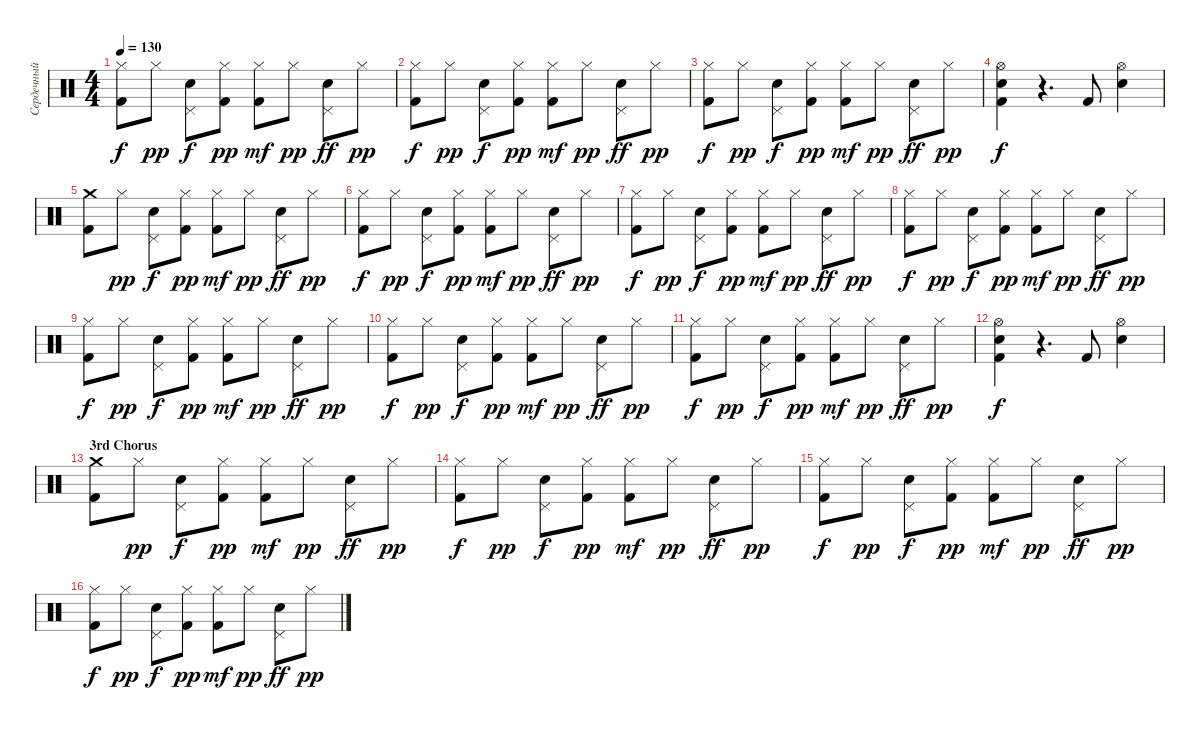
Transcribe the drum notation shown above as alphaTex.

\track ("Сердечный (Ударные)" "Сердечный ") {instrument percussion}
\staff {score}
\articulation defaults
\ts (4 4)
\tempo 130
\clef neutral
\ks c
("Hi-Hat (closed)" "Kick (hit) 2").8{dy f} "Hi-Hat (closed)".8{dy pp} ("Pedal Hi-Hat (hit)" "Electric Snare (hit)").8{dy f} ("Hi-Hat (closed)" "Kick (hit) 2").8{dy pp} ("Hi-Hat (closed)" "Kick (hit) 2").8{dy mf} "Hi-Hat (closed)".8{dy pp} ("Pedal Hi-Hat (hit)" "Electric Snare (hit)").8{dy ff} "Hi-Hat (closed)".8{dy pp} |
("Hi-Hat (closed)" "Kick (hit) 2").8{dy f} "Hi-Hat (closed)".8{dy pp} ("Pedal Hi-Hat (hit)" "Electric Snare (hit)").8{dy f} ("Hi-Hat (closed)" "Kick (hit) 2").8{dy pp} ("Hi-Hat (closed)" "Kick (hit) 2").8{dy mf} "Hi-Hat (closed)".8{dy pp} ("Pedal Hi-Hat (hit)" "Electric Snare (hit)").8{dy ff} "Hi-Hat (closed)".8{dy pp} |
("Hi-Hat (closed)" "Kick (hit) 2").8{dy f} "Hi-Hat (closed)".8{dy pp} ("Pedal Hi-Hat (hit)" "Electric Snare (hit)").8{dy f} ("Hi-Hat (closed)" "Kick (hit) 2").8{dy pp} ("Hi-Hat (closed)" "Kick (hit) 2").8{dy mf} "Hi-Hat (closed)".8{dy pp} ("Pedal Hi-Hat (hit)" "Electric Snare (hit)").8{dy ff} "Hi-Hat (closed)".8{dy pp} |
("Kick (hit) 2" "Electric Snare (hit)" "Hi-Hat (open)").4{dy f} r.4{d} "Kick (hit) 2".8 ("Hi-Hat (open)" "Electric Snare (hit)").4 |
("Kick (hit) 2" "Crash medium (hit)").8 "Hi-Hat (closed)".8{dy pp} ("Pedal Hi-Hat (hit)" "Electric Snare (hit)").8{dy f} ("Hi-Hat (closed)" "Kick (hit) 2").8{dy pp} ("Hi-Hat (closed)" "Kick (hit) 2").8{dy mf} "Hi-Hat (closed)".8{dy pp} ("Pedal Hi-Hat (hit)" "Electric Snare (hit)").8{dy ff} "Hi-Hat (closed)".8{dy pp} |
("Hi-Hat (closed)" "Kick (hit) 2").8{dy f} "Hi-Hat (closed)".8{dy pp} ("Pedal Hi-Hat (hit)" "Electric Snare (hit)").8{dy f} ("Hi-Hat (closed)" "Kick (hit) 2").8{dy pp} ("Hi-Hat (closed)" "Kick (hit) 2").8{dy mf} "Hi-Hat (closed)".8{dy pp} ("Pedal Hi-Hat (hit)" "Electric Snare (hit)").8{dy ff} "Hi-Hat (closed)".8{dy pp} |
("Hi-Hat (closed)" "Kick (hit) 2").8{dy f} "Hi-Hat (closed)".8{dy pp} ("Pedal Hi-Hat (hit)" "Electric Snare (hit)").8{dy f} ("Hi-Hat (closed)" "Kick (hit) 2").8{dy pp} ("Hi-Hat (closed)" "Kick (hit) 2").8{dy mf} "Hi-Hat (closed)".8{dy pp} ("Pedal Hi-Hat (hit)" "Electric Snare (hit)").8{dy ff} "Hi-Hat (closed)".8{dy pp} |
("Hi-Hat (closed)" "Kick (hit) 2").8{dy f} "Hi-Hat (closed)".8{dy pp} ("Pedal Hi-Hat (hit)" "Electric Snare (hit)").8{dy f} ("Hi-Hat (closed)" "Kick (hit) 2").8{dy pp} ("Hi-Hat (closed)" "Kick (hit) 2").8{dy mf} "Hi-Hat (closed)".8{dy pp} ("Pedal Hi-Hat (hit)" "Electric Snare (hit)").8{dy ff} "Hi-Hat (closed)".8{dy pp} |
("Hi-Hat (closed)" "Kick (hit) 2").8{dy f} "Hi-Hat (closed)".8{dy pp} ("Pedal Hi-Hat (hit)" "Electric Snare (hit)").8{dy f} ("Hi-Hat (closed)" "Kick (hit) 2").8{dy pp} ("Hi-Hat (closed)" "Kick (hit) 2").8{dy mf} "Hi-Hat (closed)".8{dy pp} ("Pedal Hi-Hat (hit)" "Electric Snare (hit)").8{dy ff} "Hi-Hat (closed)".8{dy pp} |
("Hi-Hat (closed)" "Kick (hit) 2").8{dy f} "Hi-Hat (closed)".8{dy pp} ("Pedal Hi-Hat (hit)" "Electric Snare (hit)").8{dy f} ("Hi-Hat (closed)" "Kick (hit) 2").8{dy pp} ("Hi-Hat (closed)" "Kick (hit) 2").8{dy mf} "Hi-Hat (closed)".8{dy pp} ("Pedal Hi-Hat (hit)" "Electric Snare (hit)").8{dy ff} "Hi-Hat (closed)".8{dy pp} |
("Hi-Hat (closed)" "Kick (hit) 2").8{dy f} "Hi-Hat (closed)".8{dy pp} ("Pedal Hi-Hat (hit)" "Electric Snare (hit)").8{dy f} ("Hi-Hat (closed)" "Kick (hit) 2").8{dy pp} ("Hi-Hat (closed)" "Kick (hit) 2").8{dy mf} "Hi-Hat (closed)".8{dy pp} ("Pedal Hi-Hat (hit)" "Electric Snare (hit)").8{dy ff} "Hi-Hat (closed)".8{dy pp} |
("Kick (hit) 2" "Electric Snare (hit)" "Hi-Hat (open)").4{dy f} r.4{d} "Kick (hit) 2".8 ("Hi-Hat (open)" "Electric Snare (hit)").4 |
\section ("" "3rd Chorus")
("Kick (hit) 2" "Crash medium (hit)").8 "Hi-Hat (closed)".8{dy pp} ("Pedal Hi-Hat (hit)" "Electric Snare (hit)").8{dy f} ("Hi-Hat (closed)" "Kick (hit) 2").8{dy pp} ("Hi-Hat (closed)" "Kick (hit) 2").8{dy mf} "Hi-Hat (closed)".8{dy pp} ("Pedal Hi-Hat (hit)" "Electric Snare (hit)").8{dy ff} "Hi-Hat (closed)".8{dy pp} |
("Hi-Hat (closed)" "Kick (hit) 2").8{dy f} "Hi-Hat (closed)".8{dy pp} ("Pedal Hi-Hat (hit)" "Electric Snare (hit)").8{dy f} ("Hi-Hat (closed)" "Kick (hit) 2").8{dy pp} ("Hi-Hat (closed)" "Kick (hit) 2").8{dy mf} "Hi-Hat (closed)".8{dy pp} ("Pedal Hi-Hat (hit)" "Electric Snare (hit)").8{dy ff} "Hi-Hat (closed)".8{dy pp} |
("Hi-Hat (closed)" "Kick (hit) 2").8{dy f} "Hi-Hat (closed)".8{dy pp} ("Pedal Hi-Hat (hit)" "Electric Snare (hit)").8{dy f} ("Hi-Hat (closed)" "Kick (hit) 2").8{dy pp} ("Hi-Hat (closed)" "Kick (hit) 2").8{dy mf} "Hi-Hat (closed)".8{dy pp} ("Pedal Hi-Hat (hit)" "Electric Snare (hit)").8{dy ff} "Hi-Hat (closed)".8{dy pp} |
("Hi-Hat (closed)" "Kick (hit) 2").8{dy f} "Hi-Hat (closed)".8{dy pp} ("Pedal Hi-Hat (hit)" "Electric Snare (hit)").8{dy f} ("Hi-Hat (closed)" "Kick (hit) 2").8{dy pp} ("Hi-Hat (closed)" "Kick (hit) 2").8{dy mf} "Hi-Hat (closed)".8{dy pp} ("Pedal Hi-Hat (hit)" "Electric Snare (hit)").8{dy ff} "Hi-Hat (closed)".8{dy pp}
